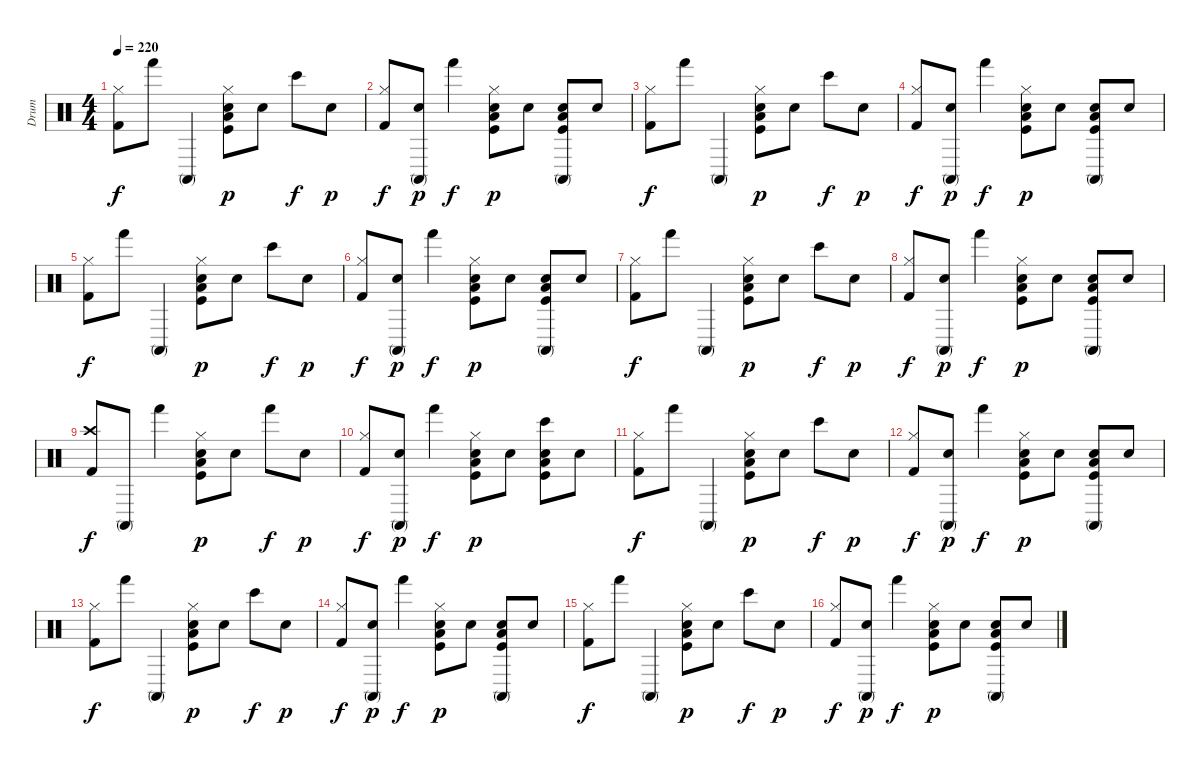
\track ("Drum" "Drum") {instrument percussion}
\staff {score}
\articulation defaults
\ts (4 4)
\tempo 220
\clef neutral
\ks c
("Hi-Hat (closed)" "Kick (hit) 2").8{dy f} "Hand (hit)".8 "Conga high (mute)".4 ("Hi-Hat (closed)" "Low Floor Tom (hit)" "Electric Snare (hit)" "Kick (hit)").8{dy p} "Electric Snare (hit)".8 "Bongo High (hit)".8{dy f} "Electric Snare (hit)".8{dy p} |
("Hi-Hat (closed)" "Kick (hit) 2").8{dy f} ("Conga high (mute)" "Electric Snare (hit)").8{dy p} "Hand (hit)".4{dy f} ("Hi-Hat (closed)" "Low Floor Tom (hit)" "Electric Snare (hit)" "Kick (hit)").8{dy p} "Electric Snare (hit)".8 ("Low Floor Tom (hit)" "Conga high (mute)" "Electric Snare (hit)" "Kick (hit)").8 "Electric Snare (hit)".8 |
("Hi-Hat (closed)" "Kick (hit) 2").8{dy f} "Hand (hit)".8 "Conga high (mute)".4 ("Hi-Hat (closed)" "Low Floor Tom (hit)" "Electric Snare (hit)" "Kick (hit)").8{dy p} "Electric Snare (hit)".8 "Bongo High (hit)".8{dy f} "Electric Snare (hit)".8{dy p} |
("Hi-Hat (closed)" "Kick (hit) 2").8{dy f} ("Conga high (mute)" "Electric Snare (hit)").8{dy p} "Hand (hit)".4{dy f} ("Hi-Hat (closed)" "Low Floor Tom (hit)" "Electric Snare (hit)" "Kick (hit)").8{dy p} "Electric Snare (hit)".8 ("Low Floor Tom (hit)" "Conga high (mute)" "Electric Snare (hit)" "Kick (hit)").8 "Electric Snare (hit)".8 |
("Hi-Hat (closed)" "Kick (hit) 2").8{dy f} "Hand (hit)".8 "Conga high (mute)".4 ("Hi-Hat (closed)" "Low Floor Tom (hit)" "Electric Snare (hit)" "Kick (hit)").8{dy p} "Electric Snare (hit)".8 "Bongo High (hit)".8{dy f} "Electric Snare (hit)".8{dy p} |
("Hi-Hat (closed)" "Kick (hit) 2").8{dy f} ("Conga high (mute)" "Electric Snare (hit)").8{dy p} "Hand (hit)".4{dy f} ("Hi-Hat (closed)" "Low Floor Tom (hit)" "Electric Snare (hit)" "Kick (hit)").8{dy p} "Electric Snare (hit)".8 ("Low Floor Tom (hit)" "Conga high (mute)" "Electric Snare (hit)" "Kick (hit)").8 "Electric Snare (hit)".8 |
("Hi-Hat (closed)" "Kick (hit) 2").8{dy f} "Hand (hit)".8 "Conga high (mute)".4 ("Hi-Hat (closed)" "Low Floor Tom (hit)" "Electric Snare (hit)" "Kick (hit)").8{dy p} "Electric Snare (hit)".8 "Bongo High (hit)".8{dy f} "Electric Snare (hit)".8{dy p} |
("Hi-Hat (closed)" "Kick (hit) 2").8{dy f} ("Conga high (mute)" "Electric Snare (hit)").8{dy p} "Hand (hit)".4{dy f} ("Hi-Hat (closed)" "Low Floor Tom (hit)" "Electric Snare (hit)" "Kick (hit)").8{dy p} "Electric Snare (hit)".8 ("Low Floor Tom (hit)" "Conga high (mute)" "Electric Snare (hit)" "Kick (hit)").8 "Electric Snare (hit)".8 |
("Crash high (hit)" "Kick (hit) 2").8{dy f} "Conga high (mute)".8 "Hand (hit)".4 ("Hi-Hat (closed)" "Low Floor Tom (hit)" "Electric Snare (hit)" "Kick (hit)").8{dy p} "Electric Snare (hit)".8 "Hand (hit)".8{dy f} "Electric Snare (hit)".8{dy p} |
("Hi-Hat (closed)" "Kick (hit) 2").8{dy f} ("Conga high (mute)" "Electric Snare (hit)").8{dy p} "Hand (hit)".4{dy f} ("Hi-Hat (closed)" "Low Floor Tom (hit)" "Electric Snare (hit)" "Kick (hit)").8{dy p} "Electric Snare (hit)".8 ("Low Floor Tom (hit)" "Bongo High (hit)" "Electric Snare (hit)" "Kick (hit)").8 "Electric Snare (hit)".8 |
("Hi-Hat (closed)" "Kick (hit) 2").8{dy f} "Hand (hit)".8 "Conga high (mute)".4 ("Hi-Hat (closed)" "Low Floor Tom (hit)" "Electric Snare (hit)" "Kick (hit)").8{dy p} "Electric Snare (hit)".8 "Bongo High (hit)".8{dy f} "Electric Snare (hit)".8{dy p} |
("Hi-Hat (closed)" "Kick (hit) 2").8{dy f} ("Conga high (mute)" "Electric Snare (hit)").8{dy p} "Hand (hit)".4{dy f} ("Hi-Hat (closed)" "Low Floor Tom (hit)" "Electric Snare (hit)" "Kick (hit)").8{dy p} "Electric Snare (hit)".8 ("Low Floor Tom (hit)" "Conga high (mute)" "Electric Snare (hit)" "Kick (hit)").8 "Electric Snare (hit)".8 |
("Hi-Hat (closed)" "Kick (hit) 2").8{dy f} "Hand (hit)".8 "Conga high (mute)".4 ("Hi-Hat (closed)" "Low Floor Tom (hit)" "Electric Snare (hit)" "Kick (hit)").8{dy p} "Electric Snare (hit)".8 "Bongo High (hit)".8{dy f} "Electric Snare (hit)".8{dy p} |
("Hi-Hat (closed)" "Kick (hit) 2").8{dy f} ("Conga high (mute)" "Electric Snare (hit)").8{dy p} "Hand (hit)".4{dy f} ("Hi-Hat (closed)" "Low Floor Tom (hit)" "Electric Snare (hit)" "Kick (hit)").8{dy p} "Electric Snare (hit)".8 ("Low Floor Tom (hit)" "Conga high (mute)" "Electric Snare (hit)" "Kick (hit)").8 "Electric Snare (hit)".8 |
("Hi-Hat (closed)" "Kick (hit) 2").8{dy f} "Hand (hit)".8 "Conga high (mute)".4 ("Hi-Hat (closed)" "Low Floor Tom (hit)" "Electric Snare (hit)" "Kick (hit)").8{dy p} "Electric Snare (hit)".8 "Bongo High (hit)".8{dy f} "Electric Snare (hit)".8{dy p} |
("Hi-Hat (closed)" "Kick (hit) 2").8{dy f} ("Conga high (mute)" "Electric Snare (hit)").8{dy p} "Hand (hit)".4{dy f} ("Hi-Hat (closed)" "Low Floor Tom (hit)" "Electric Snare (hit)" "Kick (hit)").8{dy p} "Electric Snare (hit)".8 ("Low Floor Tom (hit)" "Conga high (mute)" "Electric Snare (hit)" "Kick (hit)").8 "Electric Snare (hit)".8
